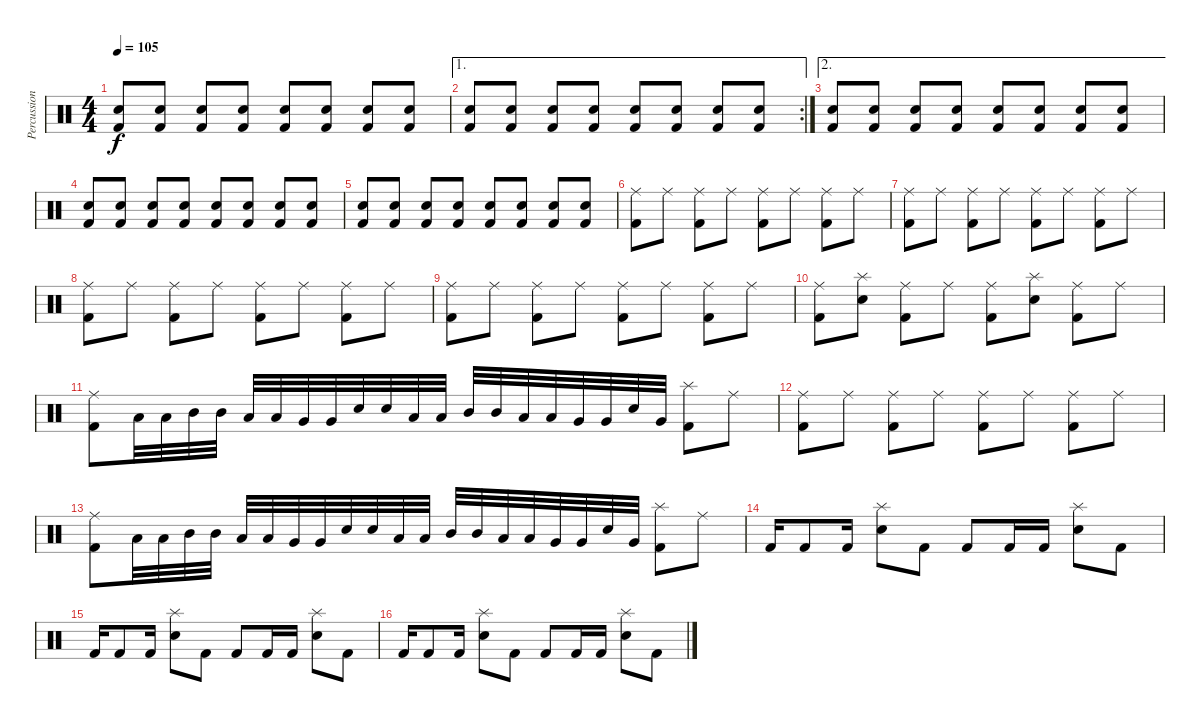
\track ("Percussion" "Percussion") {instrument percussion}
\staff {score}
\articulation defaults
\ts (4 4)
\tempo 105
\clef neutral
\ks c
("Electric Snare (hit)" "Kick (hit) 2").8{dy f} ("Electric Snare (hit)" "Kick (hit) 2").8 ("Electric Snare (hit)" "Kick (hit) 2").8 ("Electric Snare (hit)" "Kick (hit) 2").8 ("Electric Snare (hit)" "Kick (hit) 2").8 ("Electric Snare (hit)" "Kick (hit) 2").8 ("Electric Snare (hit)" "Kick (hit) 2").8 ("Electric Snare (hit)" "Kick (hit) 2").8 |
\ae 1
\rc 2
("Electric Snare (hit)" "Kick (hit) 2").8 ("Electric Snare (hit)" "Kick (hit) 2").8 ("Electric Snare (hit)" "Kick (hit) 2").8 ("Electric Snare (hit)" "Kick (hit) 2").8 ("Electric Snare (hit)" "Kick (hit) 2").8 ("Electric Snare (hit)" "Kick (hit) 2").8 ("Electric Snare (hit)" "Kick (hit) 2").8 ("Electric Snare (hit)" "Kick (hit) 2").8 |
\ae 2
("Electric Snare (hit)" "Kick (hit) 2").8 ("Electric Snare (hit)" "Kick (hit) 2").8 ("Electric Snare (hit)" "Kick (hit) 2").8 ("Electric Snare (hit)" "Kick (hit) 2").8 ("Electric Snare (hit)" "Kick (hit) 2").8 ("Electric Snare (hit)" "Kick (hit) 2").8 ("Electric Snare (hit)" "Kick (hit) 2").8 ("Electric Snare (hit)" "Kick (hit) 2").8 |
("Electric Snare (hit)" "Kick (hit) 2").8 ("Electric Snare (hit)" "Kick (hit) 2").8 ("Electric Snare (hit)" "Kick (hit) 2").8 ("Electric Snare (hit)" "Kick (hit) 2").8 ("Electric Snare (hit)" "Kick (hit) 2").8 ("Electric Snare (hit)" "Kick (hit) 2").8 ("Electric Snare (hit)" "Kick (hit) 2").8 ("Electric Snare (hit)" "Kick (hit) 2").8 |
("Electric Snare (hit)" "Kick (hit) 2").8 ("Electric Snare (hit)" "Kick (hit) 2").8 ("Electric Snare (hit)" "Kick (hit) 2").8 ("Electric Snare (hit)" "Kick (hit) 2").8 ("Electric Snare (hit)" "Kick (hit) 2").8 ("Electric Snare (hit)" "Kick (hit) 2").8 ("Electric Snare (hit)" "Kick (hit) 2").8 ("Electric Snare (hit)" "Kick (hit) 2").8 |
("Ride (middle)" "Kick (hit) 2").8 "Ride (middle)".8 ("Ride (middle)" "Kick (hit) 2").8 "Ride (middle)".8 ("Ride (middle)" "Kick (hit) 2").8 "Ride (middle)".8 ("Ride (middle)" "Kick (hit) 2").8 "Ride (middle)".8 |
("Ride (middle)" "Kick (hit) 2").8 "Ride (middle)".8 ("Ride (middle)" "Kick (hit) 2").8 "Ride (middle)".8 ("Ride (middle)" "Kick (hit) 2").8 "Ride (middle)".8 ("Ride (middle)" "Kick (hit) 2").8 "Ride (middle)".8 |
("Ride (middle)" "Kick (hit) 2").8 "Ride (middle)".8 ("Ride (middle)" "Kick (hit) 2").8 "Ride (middle)".8 ("Ride (middle)" "Kick (hit) 2").8 "Ride (middle)".8 ("Ride (middle)" "Kick (hit) 2").8 "Ride (middle)".8 |
("Ride (middle)" "Kick (hit) 2").8 "Ride (middle)".8 ("Ride (middle)" "Kick (hit) 2").8 "Ride (middle)".8 ("Ride (middle)" "Kick (hit) 2").8 "Ride (middle)".8 ("Ride (middle)" "Kick (hit) 2").8 "Ride (middle)".8 |
("Ride (middle)" "Kick (hit) 2").8 ("Splash (hit)" "Electric Snare (hit)").8 ("Ride (middle)" "Kick (hit) 2").8 "Ride (middle)".8 ("Ride (middle)" "Kick (hit) 2").8 ("Splash (hit)" "Electric Snare (hit)").8 ("Ride (middle)" "Kick (hit) 2").8 "Ride (middle)".8 |
("Ride (middle)" "Kick (hit) 2").8 "Low Tom (hit)".32 "Low Tom (hit)".32 "Mid Tom (hit)".32 "Mid Tom (hit)".32 "Low Tom (hit)".32 "Low Tom (hit)".32 "Very Low Tom (hit)".32 "Very Low Tom (hit)".32 "Electric Snare (hit)".32 "Electric Snare (hit)".32 "Low Tom (hit)".32 "Low Tom (hit)".32 "Mid Tom (hit)".32 "Mid Tom (hit)".32 "Low Tom (hit)".32 "Low Tom (hit)".32 "Very Low Tom (hit)".32 "Very Low Tom (hit)".32 "Electric Snare (hit)".32 "Very Low Tom (hit)".32 ("Splash (hit)" "Kick (hit) 2").8 "Ride (middle)".8 |
("Ride (middle)" "Kick (hit) 2").8 "Ride (middle)".8 ("Ride (middle)" "Kick (hit) 2").8 "Ride (middle)".8 ("Ride (middle)" "Kick (hit) 2").8 "Ride (middle)".8 ("Ride (middle)" "Kick (hit) 2").8 "Ride (middle)".8 |
("Ride (middle)" "Kick (hit) 2").8 "Low Tom (hit)".32 "Low Tom (hit)".32 "Mid Tom (hit)".32 "Mid Tom (hit)".32 "Low Tom (hit)".32 "Low Tom (hit)".32 "Very Low Tom (hit)".32 "Very Low Tom (hit)".32 "Electric Snare (hit)".32 "Electric Snare (hit)".32 "Low Tom (hit)".32 "Low Tom (hit)".32 "Mid Tom (hit)".32 "Mid Tom (hit)".32 "Low Tom (hit)".32 "Low Tom (hit)".32 "Very Low Tom (hit)".32 "Very Low Tom (hit)".32 "Electric Snare (hit)".32 "Very Low Tom (hit)".32 ("Splash (hit)" "Kick (hit) 2").8 "Ride (middle)".8 |
"Kick (hit) 2".16 "Kick (hit) 2".8 "Kick (hit) 2".16 ("Splash (hit)" "Electric Snare (hit)").8 "Kick (hit) 2".8 "Kick (hit) 2".8 "Kick (hit) 2".16 "Kick (hit) 2".16 ("Splash (hit)" "Electric Snare (hit)").8 "Kick (hit) 2".8 |
"Kick (hit) 2".16 "Kick (hit) 2".8 "Kick (hit) 2".16 ("Splash (hit)" "Electric Snare (hit)").8 "Kick (hit) 2".8 "Kick (hit) 2".8 "Kick (hit) 2".16 "Kick (hit) 2".16 ("Splash (hit)" "Electric Snare (hit)").8 "Kick (hit) 2".8 |
"Kick (hit) 2".16 "Kick (hit) 2".8 "Kick (hit) 2".16 ("Splash (hit)" "Electric Snare (hit)").8 "Kick (hit) 2".8 "Kick (hit) 2".8 "Kick (hit) 2".16 "Kick (hit) 2".16 ("Splash (hit)" "Electric Snare (hit)").8 "Kick (hit) 2".8
